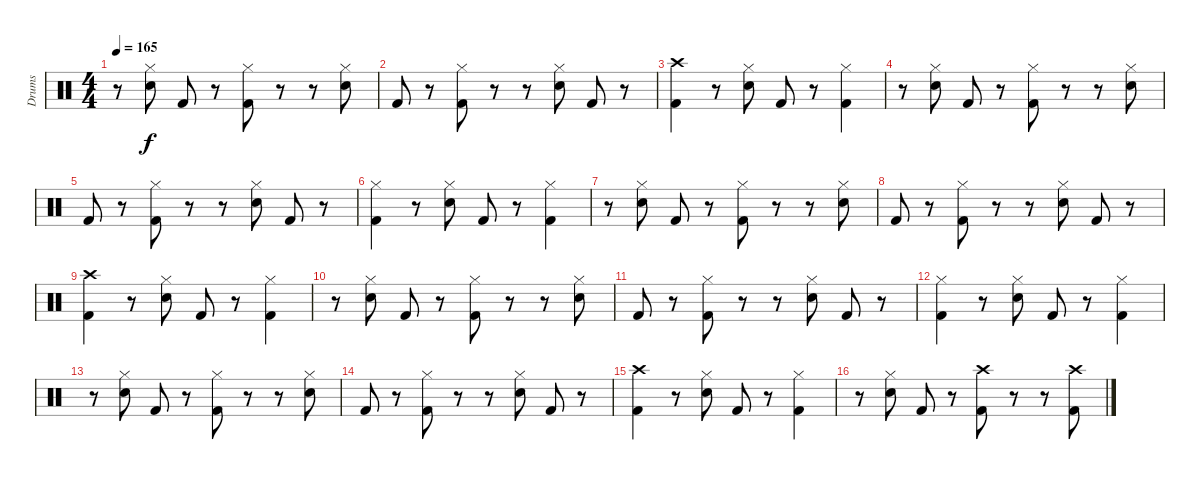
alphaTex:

\track ("Drums" "Drums") {instrument percussion}
\staff {score}
\articulation defaults
\ts (4 4)
\tempo 165
\clef neutral
\ks c
r.8{dy f} ("Electric Snare (hit)" "Hi-Hat (closed)").8 "Kick (hit) 2".8 r.8 ("Kick (hit) 2" "Hi-Hat (closed)").8 r.8 r.8 ("Hi-Hat (closed)" "Electric Snare (hit)").8 |
"Kick (hit) 2".8 r.8 ("Hi-Hat (closed)" "Kick (hit) 2").8 r.8 r.8 ("Hi-Hat (closed)" "Electric Snare (hit)").8 "Kick (hit) 2".8 r.8 |
("Kick (hit) 2" "Crash high (hit)").4 r.8 ("Electric Snare (hit)" "Hi-Hat (closed)").8 "Kick (hit) 2".8 r.8 ("Kick (hit) 2" "Hi-Hat (closed)").4 |
r.8 ("Electric Snare (hit)" "Hi-Hat (closed)").8 "Kick (hit) 2".8 r.8 ("Kick (hit) 2" "Hi-Hat (closed)").8 r.8 r.8 ("Hi-Hat (closed)" "Electric Snare (hit)").8 |
"Kick (hit) 2".8 r.8 ("Hi-Hat (closed)" "Kick (hit) 2").8 r.8 r.8 ("Hi-Hat (closed)" "Electric Snare (hit)").8 "Kick (hit) 2".8 r.8 |
("Kick (hit) 2" "Hi-Hat (closed)").4 r.8 ("Electric Snare (hit)" "Hi-Hat (closed)").8 "Kick (hit) 2".8 r.8 ("Kick (hit) 2" "Hi-Hat (closed)").4 |
r.8 ("Electric Snare (hit)" "Hi-Hat (closed)").8 "Kick (hit) 2".8 r.8 ("Kick (hit) 2" "Hi-Hat (closed)").8 r.8 r.8 ("Hi-Hat (closed)" "Electric Snare (hit)").8 |
"Kick (hit) 2".8 r.8 ("Hi-Hat (closed)" "Kick (hit) 2").8 r.8 r.8 ("Hi-Hat (closed)" "Electric Snare (hit)").8 "Kick (hit) 2".8 r.8 |
("Kick (hit) 2" "Crash high (hit)").4 r.8 ("Electric Snare (hit)" "Hi-Hat (closed)").8 "Kick (hit) 2".8 r.8 ("Kick (hit) 2" "Hi-Hat (closed)").4 |
r.8 ("Electric Snare (hit)" "Hi-Hat (closed)").8 "Kick (hit) 2".8 r.8 ("Kick (hit) 2" "Hi-Hat (closed)").8 r.8 r.8 ("Hi-Hat (closed)" "Electric Snare (hit)").8 |
"Kick (hit) 2".8 r.8 ("Hi-Hat (closed)" "Kick (hit) 2").8 r.8 r.8 ("Hi-Hat (closed)" "Electric Snare (hit)").8 "Kick (hit) 2".8 r.8 |
("Kick (hit) 2" "Hi-Hat (closed)").4 r.8 ("Electric Snare (hit)" "Hi-Hat (closed)").8 "Kick (hit) 2".8 r.8 ("Kick (hit) 2" "Hi-Hat (closed)").4 |
r.8 ("Electric Snare (hit)" "Hi-Hat (closed)").8 "Kick (hit) 2".8 r.8 ("Kick (hit) 2" "Hi-Hat (closed)").8 r.8 r.8 ("Hi-Hat (closed)" "Electric Snare (hit)").8 |
"Kick (hit) 2".8 r.8 ("Hi-Hat (closed)" "Kick (hit) 2").8 r.8 r.8 ("Hi-Hat (closed)" "Electric Snare (hit)").8 "Kick (hit) 2".8 r.8 |
("Kick (hit) 2" "Crash high (hit)").4 r.8 ("Electric Snare (hit)" "Hi-Hat (closed)").8 "Kick (hit) 2".8 r.8 ("Kick (hit) 2" "Hi-Hat (closed)").4 |
r.8 ("Electric Snare (hit)" "Hi-Hat (closed)").8 "Kick (hit) 2".8 r.8 ("Crash high (hit)" "Kick (hit) 2").8 r.8 r.8 ("Crash high (hit)" "Kick (hit) 2").8
